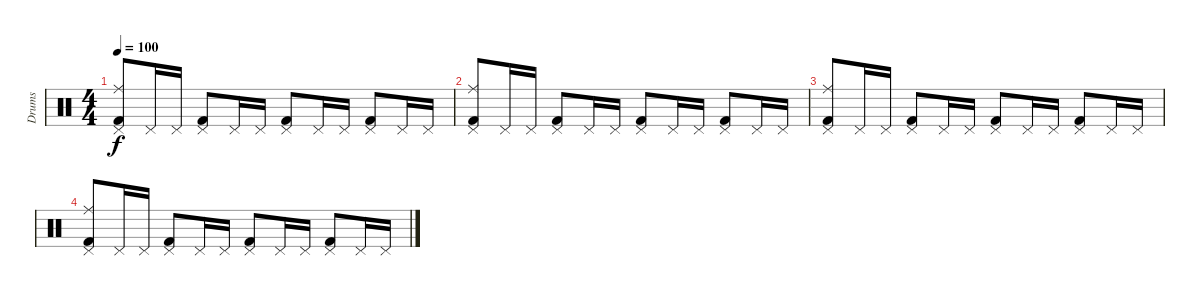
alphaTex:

\track ("Drums" "Drums") {instrument percussion}
\staff {score}
\articulation defaults
\ts (4 4)
\tempo 100
\clef neutral
\ks c
("Pedal Hi-Hat (hit)" "Ride (middle)" "Kick (hit) 2").8{dy f} "Pedal Hi-Hat (hit)".16 "Pedal Hi-Hat (hit)".16 ("Pedal Hi-Hat (hit)" "Kick (hit) 2").8 "Pedal Hi-Hat (hit)".16 "Pedal Hi-Hat (hit)".16 ("Pedal Hi-Hat (hit)" "Kick (hit) 2").8 "Pedal Hi-Hat (hit)".16 "Pedal Hi-Hat (hit)".16 ("Pedal Hi-Hat (hit)" "Kick (hit) 2").8 "Pedal Hi-Hat (hit)".16 "Pedal Hi-Hat (hit)".16 |
("Pedal Hi-Hat (hit)" "Ride (middle)" "Kick (hit) 2").8 "Pedal Hi-Hat (hit)".16 "Pedal Hi-Hat (hit)".16 ("Pedal Hi-Hat (hit)" "Kick (hit) 2").8 "Pedal Hi-Hat (hit)".16 "Pedal Hi-Hat (hit)".16 ("Pedal Hi-Hat (hit)" "Kick (hit) 2").8 "Pedal Hi-Hat (hit)".16 "Pedal Hi-Hat (hit)".16 ("Pedal Hi-Hat (hit)" "Kick (hit) 2").8 "Pedal Hi-Hat (hit)".16 "Pedal Hi-Hat (hit)".16 |
("Pedal Hi-Hat (hit)" "Ride (middle)" "Kick (hit) 2").8 "Pedal Hi-Hat (hit)".16 "Pedal Hi-Hat (hit)".16 ("Pedal Hi-Hat (hit)" "Kick (hit) 2").8 "Pedal Hi-Hat (hit)".16 "Pedal Hi-Hat (hit)".16 ("Pedal Hi-Hat (hit)" "Kick (hit) 2").8 "Pedal Hi-Hat (hit)".16 "Pedal Hi-Hat (hit)".16 ("Pedal Hi-Hat (hit)" "Kick (hit) 2").8 "Pedal Hi-Hat (hit)".16 "Pedal Hi-Hat (hit)".16 |
("Pedal Hi-Hat (hit)" "Ride (middle)" "Kick (hit) 2").8 "Pedal Hi-Hat (hit)".16 "Pedal Hi-Hat (hit)".16 ("Pedal Hi-Hat (hit)" "Kick (hit) 2").8 "Pedal Hi-Hat (hit)".16 "Pedal Hi-Hat (hit)".16 ("Pedal Hi-Hat (hit)" "Kick (hit) 2").8 "Pedal Hi-Hat (hit)".16 "Pedal Hi-Hat (hit)".16 ("Pedal Hi-Hat (hit)" "Kick (hit) 2").8 "Pedal Hi-Hat (hit)".16 "Pedal Hi-Hat (hit)".16
